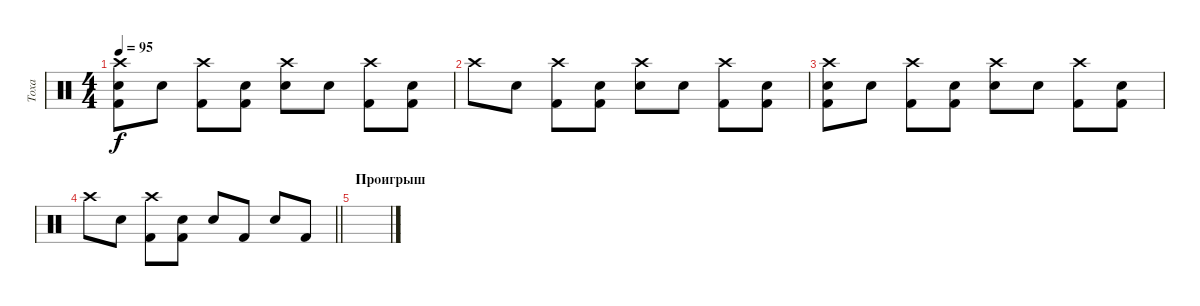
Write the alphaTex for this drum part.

\track ("Toxa" "Toxa") {instrument percussion}
\staff {score}
\articulation defaults
\ts (4 4)
\tempo 95
\clef neutral
\ks c
("Crash high (hit)" "Kick (hit) 2" "Snare (hit) 2").8{dy f} "Snare (hit)".8 ("Crash high (hit)" "Kick (hit) 2").8 ("Snare (hit)" "Kick (hit) 2").8 ("Crash high (hit)" "Electric Snare (hit)").8 "Snare (hit)".8 ("Crash high (hit)" "Kick (hit) 2").8 ("Snare (hit)" "Kick (hit) 2").8 |
"Crash high (hit)".8 "Snare (hit)".8 ("Crash high (hit)" "Kick (hit) 2").8 ("Snare (hit)" "Kick (hit) 2").8 ("Crash high (hit)" "Electric Snare (hit)").8 "Snare (hit)".8 ("Crash high (hit)" "Kick (hit) 2").8 ("Snare (hit)" "Kick (hit) 2").8 |
("Crash high (hit)" "Kick (hit) 2" "Snare (hit) 2").8 "Snare (hit)".8 ("Crash high (hit)" "Kick (hit) 2").8 ("Snare (hit)" "Kick (hit) 2").8 ("Crash high (hit)" "Electric Snare (hit)").8 "Snare (hit)".8 ("Crash high (hit)" "Kick (hit) 2").8 ("Snare (hit)" "Kick (hit) 2").8 |
\barLineRight lightlight "Crash high (hit)".8 "Snare (hit)".8
("Crash high (hit)" "Kick (hit) 2").8 ("Snare (hit)" "Kick (hit) 2").8 "Electric Snare (hit)".8 "Kick (hit) 2".8 "Electric Snare (hit)".8 "Kick (hit) 2".8 |
\section ("" "Проигрыш")
